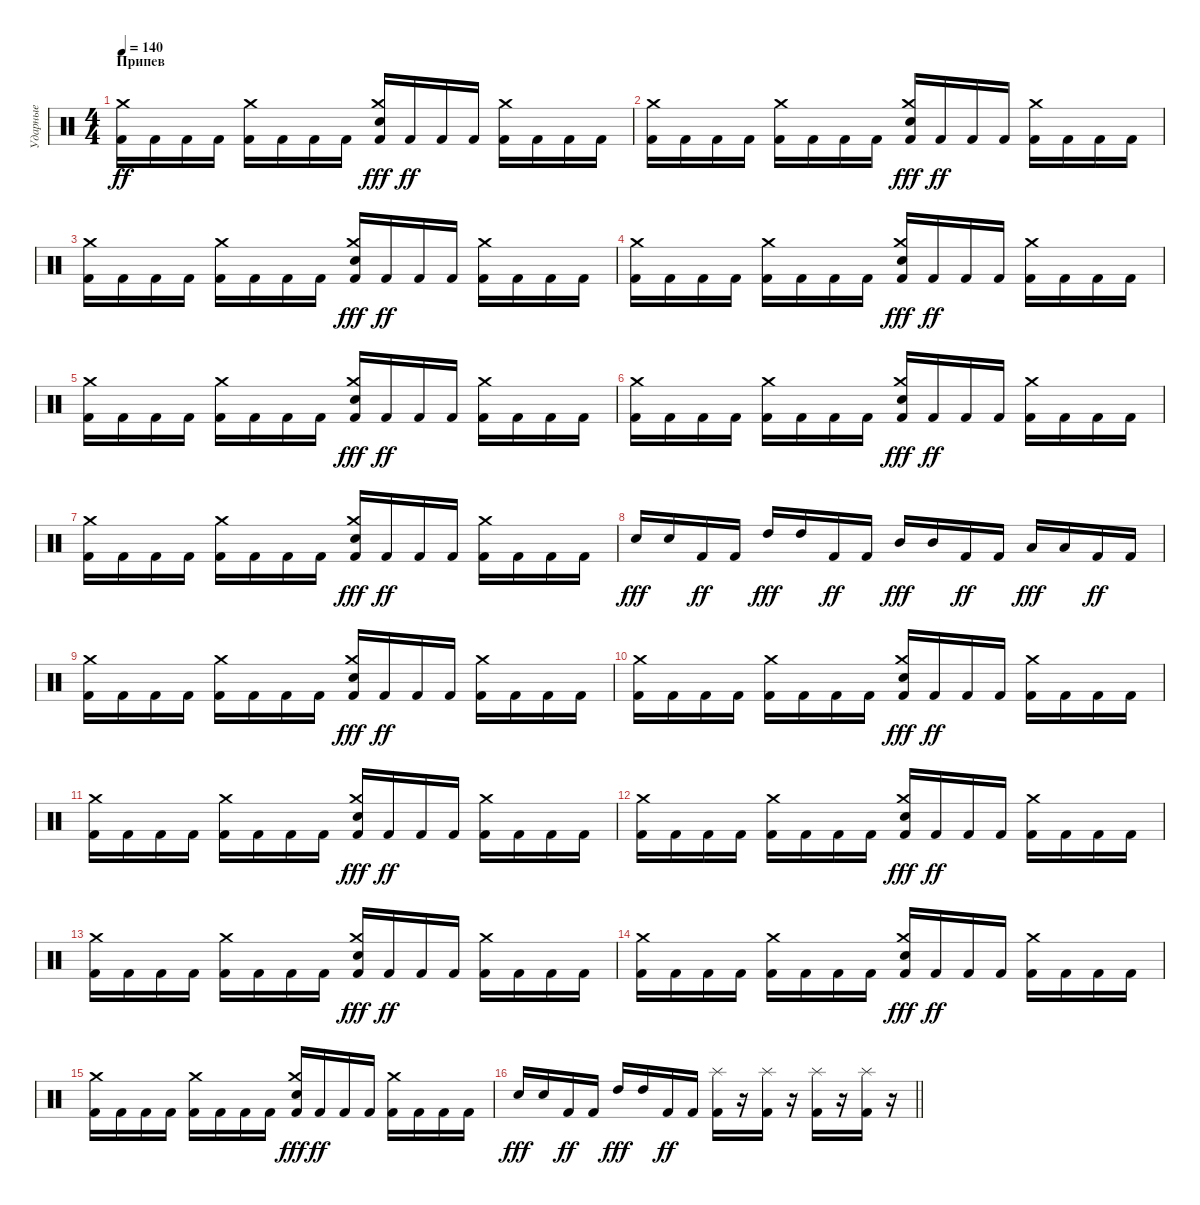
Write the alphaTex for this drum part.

\track ("Ударные" "Ударные") {instrument percussion}
\staff {score}
\articulation defaults
\ts (4 4)
\section ("" "Припев")
\tempo 140
\clef neutral
\ks c
("Kick (hit) 2" "Crash medium (hit)").16{dy ff} "Kick (hit) 2".16 "Kick (hit) 2".16 "Kick (hit) 2".16 ("Kick (hit) 2" "Crash medium (hit)").16 "Kick (hit) 2".16 "Kick (hit) 2".16 "Kick (hit) 2".16 ("Kick (hit) 2" "Crash medium (hit)" "Electric Snare (hit)").16{dy fff} "Kick (hit) 2".16{dy ff} "Kick (hit) 2".16 "Kick (hit) 2".16 ("Kick (hit) 2" "Crash medium (hit)").16 "Kick (hit) 2".16 "Kick (hit) 2".16 "Kick (hit) 2".16 |
("Kick (hit) 2" "Crash medium (hit)").16 "Kick (hit) 2".16 "Kick (hit) 2".16 "Kick (hit) 2".16 ("Kick (hit) 2" "Crash medium (hit)").16 "Kick (hit) 2".16 "Kick (hit) 2".16 "Kick (hit) 2".16 ("Kick (hit) 2" "Crash medium (hit)" "Electric Snare (hit)").16{dy fff} "Kick (hit) 2".16{dy ff} "Kick (hit) 2".16 "Kick (hit) 2".16 ("Kick (hit) 2" "Crash medium (hit)").16 "Kick (hit) 2".16 "Kick (hit) 2".16 "Kick (hit) 2".16 |
("Kick (hit) 2" "Crash medium (hit)").16 "Kick (hit) 2".16 "Kick (hit) 2".16 "Kick (hit) 2".16 ("Kick (hit) 2" "Crash medium (hit)").16 "Kick (hit) 2".16 "Kick (hit) 2".16 "Kick (hit) 2".16 ("Kick (hit) 2" "Crash medium (hit)" "Electric Snare (hit)").16{dy fff} "Kick (hit) 2".16{dy ff} "Kick (hit) 2".16 "Kick (hit) 2".16 ("Kick (hit) 2" "Crash medium (hit)").16 "Kick (hit) 2".16 "Kick (hit) 2".16 "Kick (hit) 2".16 |
("Kick (hit) 2" "Crash medium (hit)").16 "Kick (hit) 2".16 "Kick (hit) 2".16 "Kick (hit) 2".16 ("Kick (hit) 2" "Crash medium (hit)").16 "Kick (hit) 2".16 "Kick (hit) 2".16 "Kick (hit) 2".16 ("Kick (hit) 2" "Crash medium (hit)" "Electric Snare (hit)").16{dy fff} "Kick (hit) 2".16{dy ff} "Kick (hit) 2".16 "Kick (hit) 2".16 ("Kick (hit) 2" "Crash medium (hit)").16 "Kick (hit) 2".16 "Kick (hit) 2".16 "Kick (hit) 2".16 |
("Kick (hit) 2" "Crash medium (hit)").16 "Kick (hit) 2".16 "Kick (hit) 2".16 "Kick (hit) 2".16 ("Kick (hit) 2" "Crash medium (hit)").16 "Kick (hit) 2".16 "Kick (hit) 2".16 "Kick (hit) 2".16 ("Kick (hit) 2" "Crash medium (hit)" "Electric Snare (hit)").16{dy fff} "Kick (hit) 2".16{dy ff} "Kick (hit) 2".16 "Kick (hit) 2".16 ("Kick (hit) 2" "Crash medium (hit)").16 "Kick (hit) 2".16 "Kick (hit) 2".16 "Kick (hit) 2".16 |
("Kick (hit) 2" "Crash medium (hit)").16 "Kick (hit) 2".16 "Kick (hit) 2".16 "Kick (hit) 2".16 ("Kick (hit) 2" "Crash medium (hit)").16 "Kick (hit) 2".16 "Kick (hit) 2".16 "Kick (hit) 2".16 ("Kick (hit) 2" "Crash medium (hit)" "Electric Snare (hit)").16{dy fff} "Kick (hit) 2".16{dy ff} "Kick (hit) 2".16 "Kick (hit) 2".16 ("Kick (hit) 2" "Crash medium (hit)").16 "Kick (hit) 2".16 "Kick (hit) 2".16 "Kick (hit) 2".16 |
("Kick (hit) 2" "Crash medium (hit)").16 "Kick (hit) 2".16 "Kick (hit) 2".16 "Kick (hit) 2".16 ("Kick (hit) 2" "Crash medium (hit)").16 "Kick (hit) 2".16 "Kick (hit) 2".16 "Kick (hit) 2".16 ("Kick (hit) 2" "Crash medium (hit)" "Electric Snare (hit)").16{dy fff} "Kick (hit) 2".16{dy ff} "Kick (hit) 2".16 "Kick (hit) 2".16 ("Kick (hit) 2" "Crash medium (hit)").16 "Kick (hit) 2".16 "Kick (hit) 2".16 "Kick (hit) 2".16 |
"Electric Snare (hit)".16{dy fff} "Electric Snare (hit)".16 "Kick (hit) 2".16{dy ff} "Kick (hit) 2".16 "High Tom (hit)".16{dy fff} "High Tom (hit)".16 "Kick (hit) 2".16{dy ff} "Kick (hit) 2".16 "Mid Tom (hit)".16{dy fff} "Mid Tom (hit)".16 "Kick (hit) 2".16{dy ff} "Kick (hit) 2".16 "Low Tom (hit)".16{dy fff} "Low Tom (hit)".16 "Kick (hit) 2".16{dy ff} "Kick (hit) 2".16 |
("Kick (hit) 2" "Crash medium (hit)").16 "Kick (hit) 2".16 "Kick (hit) 2".16 "Kick (hit) 2".16 ("Kick (hit) 2" "Crash medium (hit)").16 "Kick (hit) 2".16 "Kick (hit) 2".16 "Kick (hit) 2".16 ("Kick (hit) 2" "Crash medium (hit)" "Electric Snare (hit)").16{dy fff} "Kick (hit) 2".16{dy ff} "Kick (hit) 2".16 "Kick (hit) 2".16 ("Kick (hit) 2" "Crash medium (hit)").16 "Kick (hit) 2".16 "Kick (hit) 2".16 "Kick (hit) 2".16 |
("Kick (hit) 2" "Crash medium (hit)").16 "Kick (hit) 2".16 "Kick (hit) 2".16 "Kick (hit) 2".16 ("Kick (hit) 2" "Crash medium (hit)").16 "Kick (hit) 2".16 "Kick (hit) 2".16 "Kick (hit) 2".16 ("Kick (hit) 2" "Crash medium (hit)" "Electric Snare (hit)").16{dy fff} "Kick (hit) 2".16{dy ff} "Kick (hit) 2".16 "Kick (hit) 2".16 ("Kick (hit) 2" "Crash medium (hit)").16 "Kick (hit) 2".16 "Kick (hit) 2".16 "Kick (hit) 2".16 |
("Kick (hit) 2" "Crash medium (hit)").16 "Kick (hit) 2".16 "Kick (hit) 2".16 "Kick (hit) 2".16 ("Kick (hit) 2" "Crash medium (hit)").16 "Kick (hit) 2".16 "Kick (hit) 2".16 "Kick (hit) 2".16 ("Kick (hit) 2" "Crash medium (hit)" "Electric Snare (hit)").16{dy fff} "Kick (hit) 2".16{dy ff} "Kick (hit) 2".16 "Kick (hit) 2".16 ("Kick (hit) 2" "Crash medium (hit)").16 "Kick (hit) 2".16 "Kick (hit) 2".16 "Kick (hit) 2".16 |
("Kick (hit) 2" "Crash medium (hit)").16 "Kick (hit) 2".16 "Kick (hit) 2".16 "Kick (hit) 2".16 ("Kick (hit) 2" "Crash medium (hit)").16 "Kick (hit) 2".16 "Kick (hit) 2".16 "Kick (hit) 2".16 ("Kick (hit) 2" "Crash medium (hit)" "Electric Snare (hit)").16{dy fff} "Kick (hit) 2".16{dy ff} "Kick (hit) 2".16 "Kick (hit) 2".16 ("Kick (hit) 2" "Crash medium (hit)").16 "Kick (hit) 2".16 "Kick (hit) 2".16 "Kick (hit) 2".16 |
("Kick (hit) 2" "Crash medium (hit)").16 "Kick (hit) 2".16 "Kick (hit) 2".16 "Kick (hit) 2".16 ("Kick (hit) 2" "Crash medium (hit)").16 "Kick (hit) 2".16 "Kick (hit) 2".16 "Kick (hit) 2".16 ("Kick (hit) 2" "Crash medium (hit)" "Electric Snare (hit)").16{dy fff} "Kick (hit) 2".16{dy ff} "Kick (hit) 2".16 "Kick (hit) 2".16 ("Kick (hit) 2" "Crash medium (hit)").16 "Kick (hit) 2".16 "Kick (hit) 2".16 "Kick (hit) 2".16 |
("Kick (hit) 2" "Crash medium (hit)").16 "Kick (hit) 2".16 "Kick (hit) 2".16 "Kick (hit) 2".16 ("Kick (hit) 2" "Crash medium (hit)").16 "Kick (hit) 2".16 "Kick (hit) 2".16 "Kick (hit) 2".16 ("Kick (hit) 2" "Crash medium (hit)" "Electric Snare (hit)").16{dy fff} "Kick (hit) 2".16{dy ff} "Kick (hit) 2".16 "Kick (hit) 2".16 ("Kick (hit) 2" "Crash medium (hit)").16 "Kick (hit) 2".16 "Kick (hit) 2".16 "Kick (hit) 2".16 |
("Kick (hit) 2" "Crash medium (hit)").16 "Kick (hit) 2".16 "Kick (hit) 2".16 "Kick (hit) 2".16 ("Kick (hit) 2" "Crash medium (hit)").16 "Kick (hit) 2".16 "Kick (hit) 2".16 "Kick (hit) 2".16 ("Kick (hit) 2" "Crash medium (hit)" "Electric Snare (hit)").16{dy fff} "Kick (hit) 2".16{dy ff} "Kick (hit) 2".16 "Kick (hit) 2".16 ("Kick (hit) 2" "Crash medium (hit)").16 "Kick (hit) 2".16 "Kick (hit) 2".16 "Kick (hit) 2".16 |
\barLineRight lightlight "Electric Snare (hit)".16{dy fff} "Electric Snare (hit)".16 "Kick (hit) 2".16{dy ff} "Kick (hit) 2".16 "High Tom (hit)".16{dy fff} "High Tom (hit)".16 "Kick (hit) 2".16{dy ff} "Kick (hit) 2".16
("Kick (hit) 2" "Splash (hit)").16 r.16 ("Kick (hit) 2" "Splash (hit)").16 r.16 ("Kick (hit) 2" "Splash (hit)").16 r.16 ("Kick (hit) 2" "Splash (hit)").16 r.16
